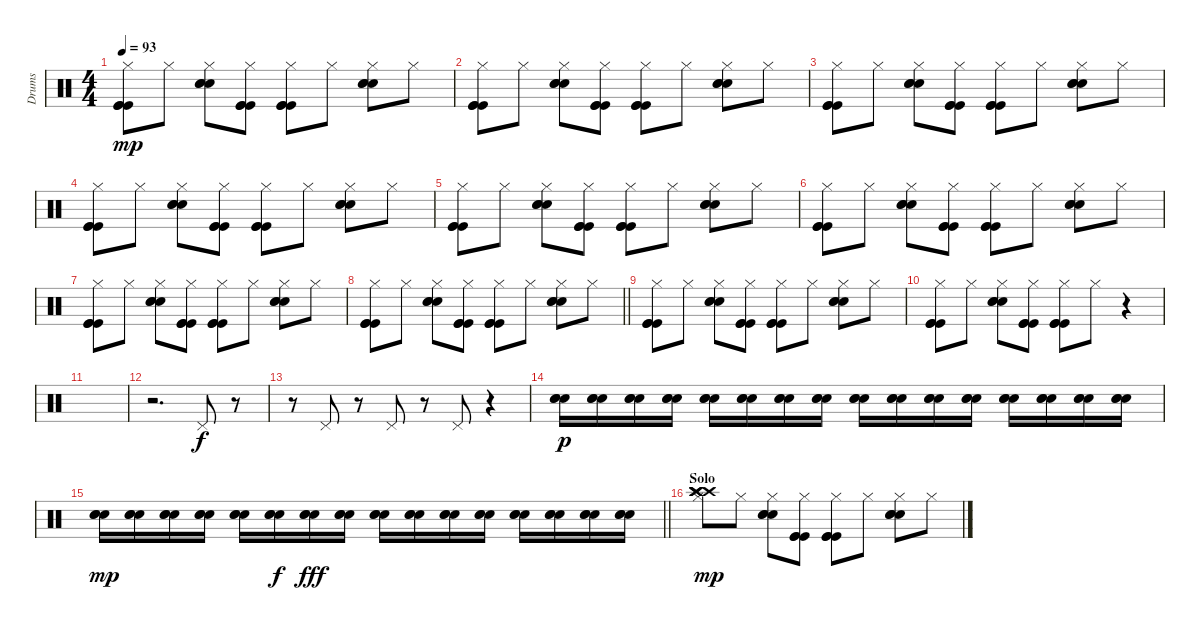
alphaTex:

\track ("Drums" "Drums") {instrument percussion}
\staff {score}
\articulation defaults
\ts (4 4)
\tempo 93
\clef neutral
\ks c
("Kick (hit)" "Kick (hit)" "Kick (hit)" "Hi-Hat (closed)").8{dy mp} "Hi-Hat (closed)".8 ("Snare (hit) 2" "Snare (hit) 2" "Snare (hit) 2" "Hi-Hat (closed)").8 ("Kick (hit)" "Kick (hit)" "Kick (hit)" "Hi-Hat (closed)").8 ("Kick (hit)" "Kick (hit)" "Kick (hit)" "Hi-Hat (closed)").8 "Hi-Hat (closed)".8 ("Snare (hit) 2" "Snare (hit) 2" "Snare (hit) 2" "Hi-Hat (closed)").8 "Hi-Hat (closed)".8 |
("Kick (hit)" "Kick (hit)" "Kick (hit)" "Hi-Hat (closed)").8 "Hi-Hat (closed)".8 ("Snare (hit) 2" "Snare (hit) 2" "Snare (hit) 2" "Hi-Hat (closed)").8 ("Kick (hit)" "Kick (hit)" "Kick (hit)" "Hi-Hat (closed)").8 ("Kick (hit)" "Kick (hit)" "Kick (hit)" "Hi-Hat (closed)").8 "Hi-Hat (closed)".8 ("Snare (hit) 2" "Snare (hit) 2" "Snare (hit) 2" "Hi-Hat (closed)").8 "Hi-Hat (closed)".8 |
("Kick (hit)" "Kick (hit)" "Kick (hit)" "Hi-Hat (closed)").8 "Hi-Hat (closed)".8 ("Snare (hit) 2" "Snare (hit) 2" "Snare (hit) 2" "Hi-Hat (closed)").8 ("Kick (hit)" "Kick (hit)" "Kick (hit)" "Hi-Hat (closed)").8 ("Kick (hit)" "Kick (hit)" "Kick (hit)" "Hi-Hat (closed)").8 "Hi-Hat (closed)".8 ("Snare (hit) 2" "Snare (hit) 2" "Snare (hit) 2" "Hi-Hat (closed)").8 "Hi-Hat (closed)".8 |
("Kick (hit)" "Kick (hit)" "Kick (hit)" "Hi-Hat (closed)").8 "Hi-Hat (closed)".8 ("Snare (hit) 2" "Snare (hit) 2" "Snare (hit) 2" "Hi-Hat (closed)").8 ("Kick (hit)" "Kick (hit)" "Kick (hit)" "Hi-Hat (closed)").8 ("Kick (hit)" "Kick (hit)" "Kick (hit)" "Hi-Hat (closed)").8 "Hi-Hat (closed)".8 ("Snare (hit) 2" "Snare (hit) 2" "Snare (hit) 2" "Hi-Hat (closed)").8 "Hi-Hat (closed)".8 |
("Kick (hit)" "Kick (hit)" "Kick (hit)" "Hi-Hat (closed)").8 "Hi-Hat (closed)".8 ("Snare (hit) 2" "Snare (hit) 2" "Snare (hit) 2" "Hi-Hat (closed)").8 ("Kick (hit)" "Kick (hit)" "Kick (hit)" "Hi-Hat (closed)").8 ("Kick (hit)" "Kick (hit)" "Kick (hit)" "Hi-Hat (closed)").8 "Hi-Hat (closed)".8 ("Snare (hit) 2" "Snare (hit) 2" "Snare (hit) 2" "Hi-Hat (closed)").8 "Hi-Hat (closed)".8 |
("Kick (hit)" "Kick (hit)" "Kick (hit)" "Hi-Hat (closed)").8 "Hi-Hat (closed)".8 ("Snare (hit) 2" "Snare (hit) 2" "Snare (hit) 2" "Hi-Hat (closed)").8 ("Kick (hit)" "Kick (hit)" "Kick (hit)" "Hi-Hat (closed)").8 ("Kick (hit)" "Kick (hit)" "Kick (hit)" "Hi-Hat (closed)").8 "Hi-Hat (closed)".8 ("Snare (hit) 2" "Snare (hit) 2" "Snare (hit) 2" "Hi-Hat (closed)").8 "Hi-Hat (closed)".8 |
("Kick (hit)" "Kick (hit)" "Kick (hit)" "Hi-Hat (closed)").8 "Hi-Hat (closed)".8 ("Snare (hit) 2" "Snare (hit) 2" "Snare (hit) 2" "Hi-Hat (closed)").8 ("Kick (hit)" "Kick (hit)" "Kick (hit)" "Hi-Hat (closed)").8 ("Kick (hit)" "Kick (hit)" "Kick (hit)" "Hi-Hat (closed)").8 "Hi-Hat (closed)".8 ("Snare (hit) 2" "Snare (hit) 2" "Snare (hit) 2" "Hi-Hat (closed)").8 "Hi-Hat (closed)".8 |
\barLineRight lightlight
("Kick (hit)" "Kick (hit)" "Kick (hit)" "Hi-Hat (closed)").8 "Hi-Hat (closed)".8 ("Snare (hit) 2" "Snare (hit) 2" "Snare (hit) 2" "Hi-Hat (closed)").8 ("Kick (hit)" "Kick (hit)" "Kick (hit)" "Hi-Hat (closed)").8 ("Kick (hit)" "Kick (hit)" "Kick (hit)" "Hi-Hat (closed)").8 "Hi-Hat (closed)".8 ("Snare (hit) 2" "Snare (hit) 2" "Snare (hit) 2" "Hi-Hat (closed)").8 "Hi-Hat (closed)".8 |
("Kick (hit)" "Kick (hit)" "Kick (hit)" "Hi-Hat (closed)").8 "Hi-Hat (closed)".8 ("Snare (hit) 2" "Snare (hit) 2" "Snare (hit) 2" "Hi-Hat (closed)").8 ("Kick (hit)" "Kick (hit)" "Kick (hit)" "Hi-Hat (closed)").8 ("Kick (hit)" "Kick (hit)" "Kick (hit)" "Hi-Hat (closed)").8 "Hi-Hat (closed)".8 ("Snare (hit) 2" "Snare (hit) 2" "Snare (hit) 2" "Hi-Hat (closed)").8 "Hi-Hat (closed)".8 |
("Kick (hit)" "Kick (hit)" "Kick (hit)" "Hi-Hat (closed)").8 "Hi-Hat (closed)".8 ("Snare (hit) 2" "Snare (hit) 2" "Snare (hit) 2" "Hi-Hat (closed)").8 ("Kick (hit)" "Kick (hit)" "Kick (hit)" "Hi-Hat (closed)").8 ("Kick (hit)" "Kick (hit)" "Kick (hit)" "Hi-Hat (closed)").8 "Hi-Hat (closed)".8 r.4 |
|
r.2{d} "Pedal Hi-Hat (hit)".8{dy f} r.8 |
r.8 "Pedal Hi-Hat (hit)".8 r.8 "Pedal Hi-Hat (hit)".8 r.8 "Pedal Hi-Hat (hit)".8 r.4 |
("Snare (hit) 2" "Snare (hit) 2" "Snare (hit) 2").16{dy p} ("Snare (hit) 2" "Snare (hit) 2" "Snare (hit) 2").16 ("Snare (hit) 2" "Snare (hit) 2" "Snare (hit) 2").16 ("Snare (hit) 2" "Snare (hit) 2" "Snare (hit) 2").16 ("Snare (hit) 2" "Snare (hit) 2" "Snare (hit) 2").16 ("Snare (hit) 2" "Snare (hit) 2" "Snare (hit) 2").16 ("Snare (hit) 2" "Snare (hit) 2" "Snare (hit) 2").16 ("Snare (hit) 2" "Snare (hit) 2" "Snare (hit) 2").16 ("Snare (hit) 2" "Snare (hit) 2" "Snare (hit) 2").16 ("Snare (hit) 2" "Snare (hit) 2" "Snare (hit) 2").16 ("Snare (hit) 2" "Snare (hit) 2" "Snare (hit) 2").16 ("Snare (hit) 2" "Snare (hit) 2" "Snare (hit) 2").16 ("Snare (hit) 2" "Snare (hit) 2" "Snare (hit) 2").16 ("Snare (hit) 2" "Snare (hit) 2" "Snare (hit) 2").16 ("Snare (hit) 2" "Snare (hit) 2" "Snare (hit) 2").16 ("Snare (hit) 2" "Snare (hit) 2" "Snare (hit) 2").16 |
\barLineRight lightlight
("Snare (hit) 2" "Snare (hit) 2" "Snare (hit) 2").16{dy mp} ("Snare (hit) 2" "Snare (hit) 2" "Snare (hit) 2").16 ("Snare (hit) 2" "Snare (hit) 2" "Snare (hit) 2").16 ("Snare (hit) 2" "Snare (hit) 2" "Snare (hit) 2").16 ("Snare (hit) 2" "Snare (hit) 2" "Snare (hit) 2").16 ("Snare (hit) 2" "Snare (hit) 2" "Snare (hit) 2").16{dy f} ("Snare (hit) 2" "Snare (hit) 2" "Snare (hit) 2").16{dy fff} ("Snare (hit) 2" "Snare (hit) 2" "Snare (hit) 2").16 ("Snare (hit) 2" "Snare (hit) 2" "Snare (hit) 2").16 ("Snare (hit) 2" "Snare (hit) 2" "Snare (hit) 2").16 ("Snare (hit) 2" "Snare (hit) 2" "Snare (hit) 2").16 ("Snare (hit) 2" "Snare (hit) 2" "Snare (hit) 2").16 ("Snare (hit) 2" "Snare (hit) 2" "Snare (hit) 2").16 ("Snare (hit) 2" "Snare (hit) 2" "Snare (hit) 2").16 ("Snare (hit) 2" "Snare (hit) 2" "Snare (hit) 2").16 ("Snare (hit) 2" "Snare (hit) 2" "Snare (hit) 2").16 |
\section ("" "Solo")
("Crash high (hit)" "Crash high (hit)" "Crash high (hit)" "Crash high (hit)" "Hi-Hat (closed)").8{dy mp} "Hi-Hat (closed)".8 ("Snare (hit) 2" "Snare (hit) 2" "Snare (hit) 2" "Hi-Hat (closed)").8 ("Kick (hit)" "Kick (hit)" "Kick (hit)" "Hi-Hat (closed)").8 ("Kick (hit)" "Kick (hit)" "Kick (hit)" "Hi-Hat (closed)").8 "Hi-Hat (closed)".8 ("Snare (hit) 2" "Snare (hit) 2" "Snare (hit) 2" "Hi-Hat (closed)").8 "Hi-Hat (closed)".8
